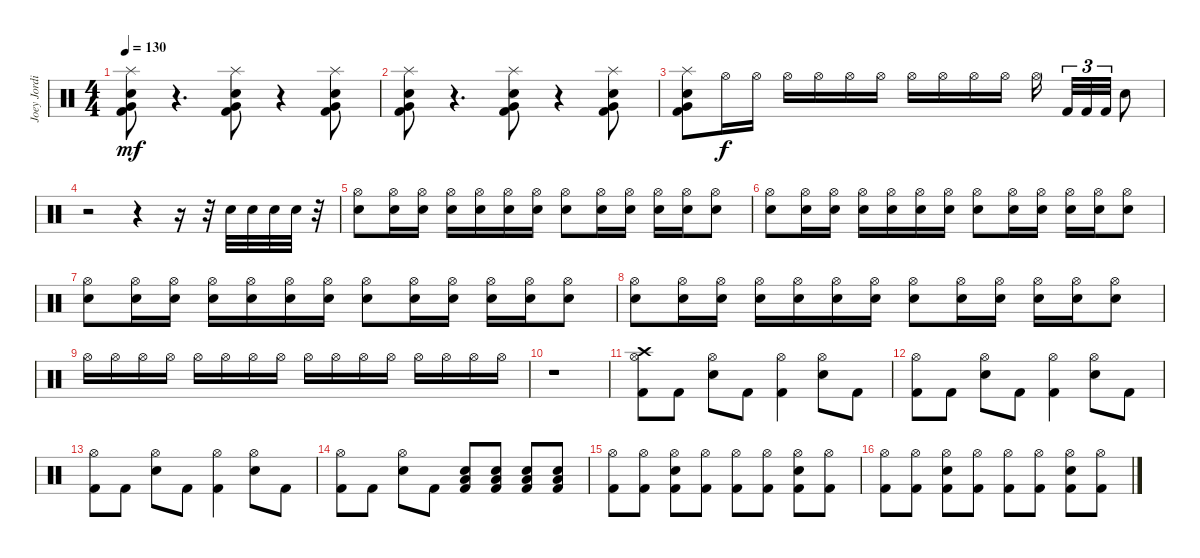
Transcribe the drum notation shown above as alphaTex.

\track ("Joey Jordison" "Joey Jordi") {instrument percussion}
\staff {score}
\articulation defaults
\ts (4 4)
\tempo 130
\clef neutral
\ks c
("Very Low Tom (hit)" "Kick (hit) 2" "Electric Snare (hit)" "Splash (hit)").8{dy mf} r.4{d} ("Very Low Tom (hit)" "Kick (hit) 2" "Electric Snare (hit)" "Splash (hit)").8 r.4 ("Very Low Tom (hit)" "Kick (hit) 2" "Electric Snare (hit)" "Splash (hit)").8 |
("Very Low Tom (hit)" "Kick (hit) 2" "Electric Snare (hit)" "Splash (hit)").8 r.4{d} ("Very Low Tom (hit)" "Kick (hit) 2" "Electric Snare (hit)" "Splash (hit)").8 r.4 ("Very Low Tom (hit)" "Kick (hit) 2" "Electric Snare (hit)" "Splash (hit)").8 |
("Very Low Tom (hit)" "Kick (hit) 2" "Electric Snare (hit)" "Splash (hit)").8 "Hi-Hat (open)".16{dy f} "Hi-Hat (open)".16 "Hi-Hat (open)".16 "Hi-Hat (open)".16 "Hi-Hat (open)".16 "Hi-Hat (open)".16 "Hi-Hat (open)".16 "Hi-Hat (open)".16 "Hi-Hat (open)".16 "Hi-Hat (open)".16 "Hi-Hat (open)".16 "Kick (hit) 2".32{tu (3 2)} "Kick (hit) 2".32{tu (3 2)} "Kick (hit) 2".32{tu (3 2)} "Electric Snare (hit)".8 |
r.2 r.4 r.16 r.32 "Electric Snare (hit)".32 "Electric Snare (hit)".32 "Electric Snare (hit)".32 "Electric Snare (hit)".32 r.32 |
("Hi-Hat (open)" "Electric Snare (hit)").8 ("Hi-Hat (open)" "Electric Snare (hit)").16 ("Hi-Hat (open)" "Electric Snare (hit)").16 ("Hi-Hat (open)" "Electric Snare (hit)").16 ("Hi-Hat (open)" "Electric Snare (hit)").16 ("Hi-Hat (open)" "Electric Snare (hit)").16 ("Hi-Hat (open)" "Electric Snare (hit)").16 ("Hi-Hat (open)" "Electric Snare (hit)").8 ("Hi-Hat (open)" "Electric Snare (hit)").16 ("Hi-Hat (open)" "Electric Snare (hit)").16 ("Hi-Hat (open)" "Electric Snare (hit)").16 ("Hi-Hat (open)" "Electric Snare (hit)").16 ("Hi-Hat (open)" "Electric Snare (hit)").8 |
("Hi-Hat (open)" "Electric Snare (hit)").8 ("Hi-Hat (open)" "Electric Snare (hit)").16 ("Hi-Hat (open)" "Electric Snare (hit)").16 ("Hi-Hat (open)" "Electric Snare (hit)").16 ("Hi-Hat (open)" "Electric Snare (hit)").16 ("Hi-Hat (open)" "Electric Snare (hit)").16 ("Hi-Hat (open)" "Electric Snare (hit)").16 ("Hi-Hat (open)" "Electric Snare (hit)").8 ("Hi-Hat (open)" "Electric Snare (hit)").16 ("Hi-Hat (open)" "Electric Snare (hit)").16 ("Hi-Hat (open)" "Electric Snare (hit)").16 ("Hi-Hat (open)" "Electric Snare (hit)").16 ("Hi-Hat (open)" "Electric Snare (hit)").8 |
("Hi-Hat (open)" "Electric Snare (hit)").8 ("Hi-Hat (open)" "Electric Snare (hit)").16 ("Hi-Hat (open)" "Electric Snare (hit)").16 ("Hi-Hat (open)" "Electric Snare (hit)").16 ("Hi-Hat (open)" "Electric Snare (hit)").16 ("Hi-Hat (open)" "Electric Snare (hit)").16 ("Hi-Hat (open)" "Electric Snare (hit)").16 ("Hi-Hat (open)" "Electric Snare (hit)").8 ("Hi-Hat (open)" "Electric Snare (hit)").16 ("Hi-Hat (open)" "Electric Snare (hit)").16 ("Hi-Hat (open)" "Electric Snare (hit)").16 ("Hi-Hat (open)" "Electric Snare (hit)").16 ("Hi-Hat (open)" "Electric Snare (hit)").8 |
("Hi-Hat (open)" "Electric Snare (hit)").8 ("Hi-Hat (open)" "Electric Snare (hit)").16 ("Hi-Hat (open)" "Electric Snare (hit)").16 ("Hi-Hat (open)" "Electric Snare (hit)").16 ("Hi-Hat (open)" "Electric Snare (hit)").16 ("Hi-Hat (open)" "Electric Snare (hit)").16 ("Hi-Hat (open)" "Electric Snare (hit)").16 ("Hi-Hat (open)" "Electric Snare (hit)").8 ("Hi-Hat (open)" "Electric Snare (hit)").16 ("Hi-Hat (open)" "Electric Snare (hit)").16 ("Hi-Hat (open)" "Electric Snare (hit)").16 ("Hi-Hat (open)" "Electric Snare (hit)").16 ("Hi-Hat (open)" "Electric Snare (hit)").8 |
"Hi-Hat (open)".16 "Hi-Hat (open)".16 "Hi-Hat (open)".16 "Hi-Hat (open)".16 "Hi-Hat (open)".16 "Hi-Hat (open)".16 "Hi-Hat (open)".16 "Hi-Hat (open)".16 "Hi-Hat (open)".16 "Hi-Hat (open)".16 "Hi-Hat (open)".16 "Hi-Hat (open)".16 "Hi-Hat (open)".16 "Hi-Hat (open)".16 "Hi-Hat (open)".16 "Hi-Hat (open)".16 |
r.1 |
("Hi-Hat (open)" "Crash high (hit)" "Kick (hit) 2").8 "Kick (hit) 2".8 ("Hi-Hat (open)" "Electric Snare (hit)").8 "Kick (hit) 2".8 ("Hi-Hat (open)" "Kick (hit) 2").4 ("Hi-Hat (open)" "Electric Snare (hit)").8 "Kick (hit) 2".8 |
("Hi-Hat (open)" "Kick (hit) 2").8 "Kick (hit) 2".8 ("Hi-Hat (open)" "Electric Snare (hit)").8 "Kick (hit) 2".8 ("Hi-Hat (open)" "Kick (hit) 2").4 ("Hi-Hat (open)" "Electric Snare (hit)").8 "Kick (hit) 2".8 |
("Hi-Hat (open)" "Kick (hit) 2").8 "Kick (hit) 2".8 ("Hi-Hat (open)" "Electric Snare (hit)").8 "Kick (hit) 2".8 ("Hi-Hat (open)" "Kick (hit) 2").4 ("Hi-Hat (open)" "Electric Snare (hit)").8 "Kick (hit) 2".8 |
("Hi-Hat (open)" "Kick (hit) 2").8 "Kick (hit) 2".8 ("Hi-Hat (open)" "Electric Snare (hit)").8 "Kick (hit) 2".8 ("Kick (hit) 2" "Electric Snare (hit)" "Low Floor Tom (hit)").8 ("Kick (hit) 2" "Electric Snare (hit)" "Low Floor Tom (hit)").8 ("Kick (hit) 2" "Electric Snare (hit)" "Low Floor Tom (hit)").8 ("Kick (hit) 2" "Electric Snare (hit)" "Low Floor Tom (hit)").8 |
("Hi-Hat (open)" "Kick (hit) 2").8 ("Hi-Hat (open)" "Kick (hit) 2").8 ("Hi-Hat (open)" "Electric Snare (hit)" "Kick (hit) 2").8 ("Hi-Hat (open)" "Kick (hit) 2").8 ("Hi-Hat (open)" "Kick (hit) 2").8 ("Hi-Hat (open)" "Kick (hit) 2").8 ("Hi-Hat (open)" "Electric Snare (hit)" "Kick (hit) 2").8 ("Hi-Hat (open)" "Kick (hit) 2").8 |
("Hi-Hat (open)" "Kick (hit) 2").8 ("Hi-Hat (open)" "Kick (hit) 2").8 ("Hi-Hat (open)" "Electric Snare (hit)" "Kick (hit) 2").8 ("Hi-Hat (open)" "Kick (hit) 2").8 ("Hi-Hat (open)" "Kick (hit) 2").8 ("Hi-Hat (open)" "Kick (hit) 2").8 ("Hi-Hat (open)" "Electric Snare (hit)" "Kick (hit) 2").8 ("Hi-Hat (open)" "Kick (hit) 2").8
